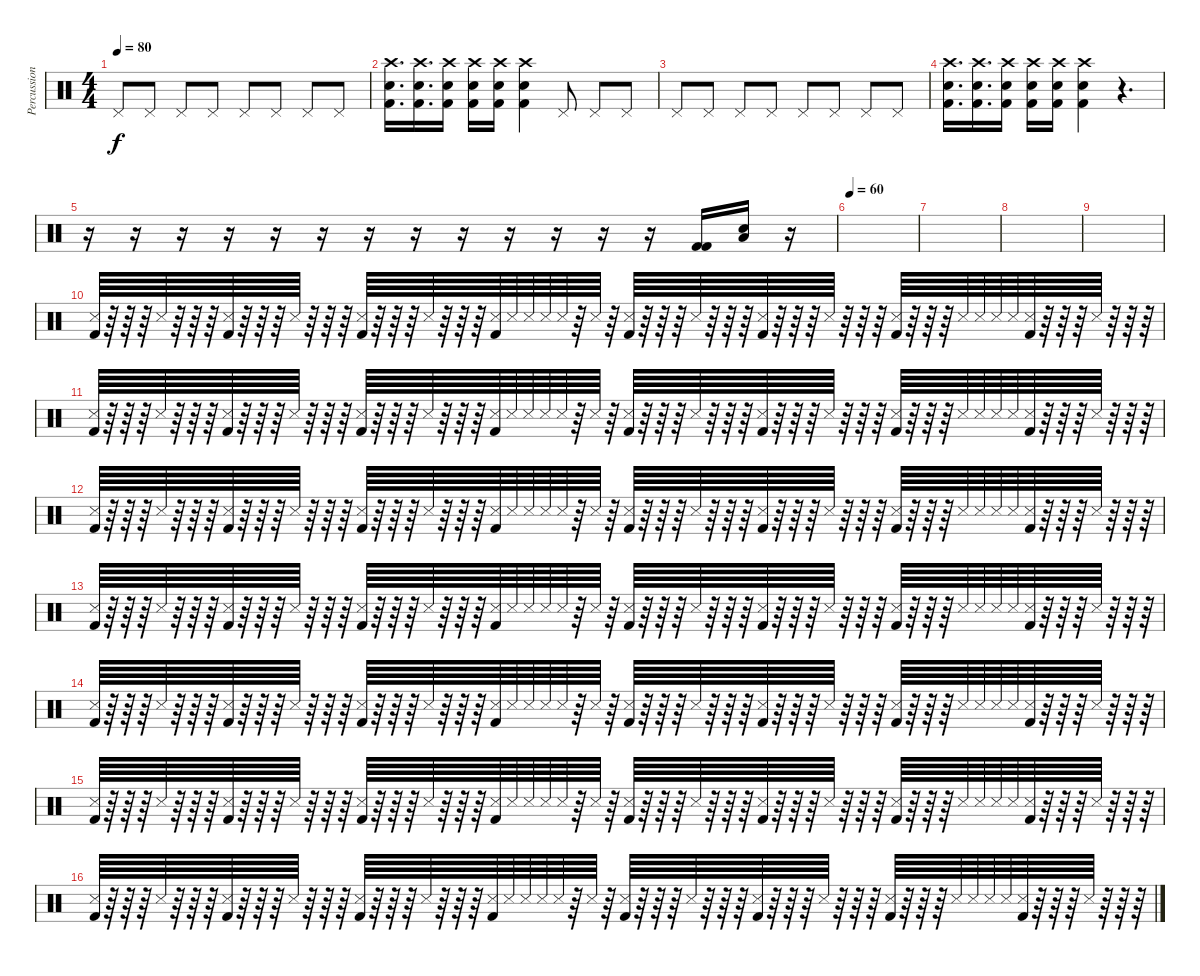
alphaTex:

\track ("Percussion" "Percussion") {instrument percussion}
\staff {score}
\articulation defaults
\ts (4 4)
\tempo 80
\clef neutral
\ks c "Pedal Hi-Hat (hit)".8{dy f} "Pedal Hi-Hat (hit)".8 "Pedal Hi-Hat (hit)".8 "Pedal Hi-Hat (hit)".8 "Pedal Hi-Hat (hit)".8 "Pedal Hi-Hat (hit)".8 "Pedal Hi-Hat (hit)".8 "Pedal Hi-Hat (hit)".8
|
("Crash high (hit)" "Electric Snare (hit)" "Kick (hit) 2").16{d} ("Crash high (hit)" "Electric Snare (hit)" "Kick (hit) 2").16{d} ("Crash high (hit)" "Electric Snare (hit)" "Kick (hit) 2").16 ("Crash high (hit)" "Electric Snare (hit)" "Kick (hit) 2").16 ("Crash high (hit)" "Electric Snare (hit)" "Kick (hit) 2").16 ("Crash high (hit)" "Electric Snare (hit)" "Kick (hit) 2").4 "Pedal Hi-Hat (hit)".8 "Pedal Hi-Hat (hit)".8 "Pedal Hi-Hat (hit)".8 |
"Pedal Hi-Hat (hit)".8 "Pedal Hi-Hat (hit)".8 "Pedal Hi-Hat (hit)".8 "Pedal Hi-Hat (hit)".8 "Pedal Hi-Hat (hit)".8 "Pedal Hi-Hat (hit)".8 "Pedal Hi-Hat (hit)".8 "Pedal Hi-Hat (hit)".8 |
("Crash high (hit)" "Electric Snare (hit)" "Kick (hit) 2").16{d} ("Crash high (hit)" "Electric Snare (hit)" "Kick (hit) 2").16{d} ("Crash high (hit)" "Electric Snare (hit)" "Kick (hit) 2").16 ("Crash high (hit)" "Electric Snare (hit)" "Kick (hit) 2").16 ("Crash high (hit)" "Electric Snare (hit)" "Kick (hit) 2").16 ("Crash high (hit)" "Electric Snare (hit)" "Kick (hit) 2").4 r.4{d} |
r.16 r.16 r.16 r.16 r.16 r.16 r.16 r.16 r.16 r.16 r.16 r.16 r.16 ("Kick (hit) 2" "Kick (hit) 2").16 ("Electric Snare (hit)" "Low Floor Tom (hit)").16 r.16 |
\tempo 60
|
|
|
|
("Snare (side stick) 3" "Kick (hit) 2").64 r.64 r.64 r.64 "Snare (side stick) 3".64 r.64 r.64 r.64 ("Snare (side stick) 3" "Kick (hit) 2").64 r.64 r.64 r.64 "Snare (side stick) 3".64 r.64 r.64 r.64 ("Snare (side stick) 3" "Kick (hit) 2").64 r.64 r.64 r.64 "Snare (side stick) 3".64 r.64 r.64 r.64 ("Snare (side stick) 3" "Kick (hit) 2").64 "Snare (side stick) 3".64 "Snare (side stick) 3".64 "Snare (side stick) 3".64 "Snare (side stick) 3".64 r.64 "Snare (side stick) 3".64 r.64 ("Snare (side stick) 3" "Kick (hit) 2").64 r.64 r.64 r.64 "Snare (side stick) 3".64 r.64 r.64 r.64 ("Snare (side stick) 3" "Kick (hit) 2").64 r.64 r.64 r.64 "Snare (side stick) 3".64 r.64 r.64 r.64 ("Snare (side stick) 3" "Kick (hit) 2").64 r.64 r.64 r.64 "Snare (side stick) 3".64 "Snare (side stick) 3".64 "Snare (side stick) 3".64 "Snare (side stick) 3".64 ("Snare (side stick) 3" "Kick (hit) 2").64 r.64 r.64 r.64 "Snare (side stick) 3".64 r.64 r.64 r.64 |
("Snare (side stick) 3" "Kick (hit) 2").64 r.64 r.64 r.64 "Snare (side stick) 3".64 r.64 r.64 r.64 ("Snare (side stick) 3" "Kick (hit) 2").64 r.64 r.64 r.64 "Snare (side stick) 3".64 r.64 r.64 r.64 ("Snare (side stick) 3" "Kick (hit) 2").64 r.64 r.64 r.64 "Snare (side stick) 3".64 r.64 r.64 r.64 ("Snare (side stick) 3" "Kick (hit) 2").64 "Snare (side stick) 3".64 "Snare (side stick) 3".64 "Snare (side stick) 3".64 "Snare (side stick) 3".64 r.64 "Snare (side stick) 3".64 r.64 ("Snare (side stick) 3" "Kick (hit) 2").64 r.64 r.64 r.64 "Snare (side stick) 3".64 r.64 r.64 r.64 ("Snare (side stick) 3" "Kick (hit) 2").64 r.64 r.64 r.64 "Snare (side stick) 3".64 r.64 r.64 r.64 ("Snare (side stick) 3" "Kick (hit) 2").64 r.64 r.64 r.64 "Snare (side stick) 3".64 "Snare (side stick) 3".64 "Snare (side stick) 3".64 "Snare (side stick) 3".64 ("Snare (side stick) 3" "Kick (hit) 2").64 r.64 r.64 r.64 "Snare (side stick) 3".64 r.64 r.64 r.64 |
("Snare (side stick) 3" "Kick (hit) 2").64 r.64 r.64 r.64 "Snare (side stick) 3".64 r.64 r.64 r.64 ("Snare (side stick) 3" "Kick (hit) 2").64 r.64 r.64 r.64 "Snare (side stick) 3".64 r.64 r.64 r.64 ("Snare (side stick) 3" "Kick (hit) 2").64 r.64 r.64 r.64 "Snare (side stick) 3".64 r.64 r.64 r.64 ("Snare (side stick) 3" "Kick (hit) 2").64 "Snare (side stick) 3".64 "Snare (side stick) 3".64 "Snare (side stick) 3".64 "Snare (side stick) 3".64 r.64 "Snare (side stick) 3".64 r.64 ("Snare (side stick) 3" "Kick (hit) 2").64 r.64 r.64 r.64 "Snare (side stick) 3".64 r.64 r.64 r.64 ("Snare (side stick) 3" "Kick (hit) 2").64 r.64 r.64 r.64 "Snare (side stick) 3".64 r.64 r.64 r.64 ("Snare (side stick) 3" "Kick (hit) 2").64 r.64 r.64 r.64 "Snare (side stick) 3".64 "Snare (side stick) 3".64 "Snare (side stick) 3".64 "Snare (side stick) 3".64 ("Snare (side stick) 3" "Kick (hit) 2").64 r.64 r.64 r.64 "Snare (side stick) 3".64 r.64 r.64 r.64 |
("Snare (side stick) 3" "Kick (hit) 2").64 r.64 r.64 r.64 "Snare (side stick) 3".64 r.64 r.64 r.64 ("Snare (side stick) 3" "Kick (hit) 2").64 r.64 r.64 r.64 "Snare (side stick) 3".64 r.64 r.64 r.64 ("Snare (side stick) 3" "Kick (hit) 2").64 r.64 r.64 r.64 "Snare (side stick) 3".64 r.64 r.64 r.64 ("Snare (side stick) 3" "Kick (hit) 2").64 "Snare (side stick) 3".64 "Snare (side stick) 3".64 "Snare (side stick) 3".64 "Snare (side stick) 3".64 r.64 "Snare (side stick) 3".64 r.64 ("Snare (side stick) 3" "Kick (hit) 2").64 r.64 r.64 r.64 "Snare (side stick) 3".64 r.64 r.64 r.64 ("Snare (side stick) 3" "Kick (hit) 2").64 r.64 r.64 r.64 "Snare (side stick) 3".64 r.64 r.64 r.64 ("Snare (side stick) 3" "Kick (hit) 2").64 r.64 r.64 r.64 "Snare (side stick) 3".64 "Snare (side stick) 3".64 "Snare (side stick) 3".64 "Snare (side stick) 3".64 ("Snare (side stick) 3" "Kick (hit) 2").64 r.64 r.64 r.64 "Snare (side stick) 3".64 r.64 r.64 r.64 |
("Snare (side stick) 3" "Kick (hit) 2").64 r.64 r.64 r.64 "Snare (side stick) 3".64 r.64 r.64 r.64 ("Snare (side stick) 3" "Kick (hit) 2").64 r.64 r.64 r.64 "Snare (side stick) 3".64 r.64 r.64 r.64 ("Snare (side stick) 3" "Kick (hit) 2").64 r.64 r.64 r.64 "Snare (side stick) 3".64 r.64 r.64 r.64 ("Snare (side stick) 3" "Kick (hit) 2").64 "Snare (side stick) 3".64 "Snare (side stick) 3".64 "Snare (side stick) 3".64 "Snare (side stick) 3".64 r.64 "Snare (side stick) 3".64 r.64 ("Snare (side stick) 3" "Kick (hit) 2").64 r.64 r.64 r.64 "Snare (side stick) 3".64 r.64 r.64 r.64 ("Snare (side stick) 3" "Kick (hit) 2").64 r.64 r.64 r.64 "Snare (side stick) 3".64 r.64 r.64 r.64 ("Snare (side stick) 3" "Kick (hit) 2").64 r.64 r.64 r.64 "Snare (side stick) 3".64 "Snare (side stick) 3".64 "Snare (side stick) 3".64 "Snare (side stick) 3".64 ("Snare (side stick) 3" "Kick (hit) 2").64 r.64 r.64 r.64 "Snare (side stick) 3".64 r.64 r.64 r.64 |
("Snare (side stick) 3" "Kick (hit) 2").64 r.64 r.64 r.64 "Snare (side stick) 3".64 r.64 r.64 r.64 ("Snare (side stick) 3" "Kick (hit) 2").64 r.64 r.64 r.64 "Snare (side stick) 3".64 r.64 r.64 r.64 ("Snare (side stick) 3" "Kick (hit) 2").64 r.64 r.64 r.64 "Snare (side stick) 3".64 r.64 r.64 r.64 ("Snare (side stick) 3" "Kick (hit) 2").64 "Snare (side stick) 3".64 "Snare (side stick) 3".64 "Snare (side stick) 3".64 "Snare (side stick) 3".64 r.64 "Snare (side stick) 3".64 r.64 ("Snare (side stick) 3" "Kick (hit) 2").64 r.64 r.64 r.64 "Snare (side stick) 3".64 r.64 r.64 r.64 ("Snare (side stick) 3" "Kick (hit) 2").64 r.64 r.64 r.64 "Snare (side stick) 3".64 r.64 r.64 r.64 ("Snare (side stick) 3" "Kick (hit) 2").64 r.64 r.64 r.64 "Snare (side stick) 3".64 "Snare (side stick) 3".64 "Snare (side stick) 3".64 "Snare (side stick) 3".64 ("Snare (side stick) 3" "Kick (hit) 2").64 r.64 r.64 r.64 "Snare (side stick) 3".64 r.64 r.64 r.64 |
("Snare (side stick) 3" "Kick (hit) 2").64 r.64 r.64 r.64 "Snare (side stick) 3".64 r.64 r.64 r.64 ("Snare (side stick) 3" "Kick (hit) 2").64 r.64 r.64 r.64 "Snare (side stick) 3".64 r.64 r.64 r.64 ("Snare (side stick) 3" "Kick (hit) 2").64 r.64 r.64 r.64 "Snare (side stick) 3".64 r.64 r.64 r.64 ("Snare (side stick) 3" "Kick (hit) 2").64 "Snare (side stick) 3".64 "Snare (side stick) 3".64 "Snare (side stick) 3".64 "Snare (side stick) 3".64 r.64 "Snare (side stick) 3".64 r.64 ("Snare (side stick) 3" "Kick (hit) 2").64 r.64 r.64 r.64 "Snare (side stick) 3".64 r.64 r.64 r.64 ("Snare (side stick) 3" "Kick (hit) 2").64 r.64 r.64 r.64 "Snare (side stick) 3".64 r.64 r.64 r.64 ("Snare (side stick) 3" "Kick (hit) 2").64 r.64 r.64 r.64 "Snare (side stick) 3".64 "Snare (side stick) 3".64 "Snare (side stick) 3".64 "Snare (side stick) 3".64 ("Snare (side stick) 3" "Kick (hit) 2").64 r.64 r.64 r.64 "Snare (side stick) 3".64 r.64 r.64 r.64
